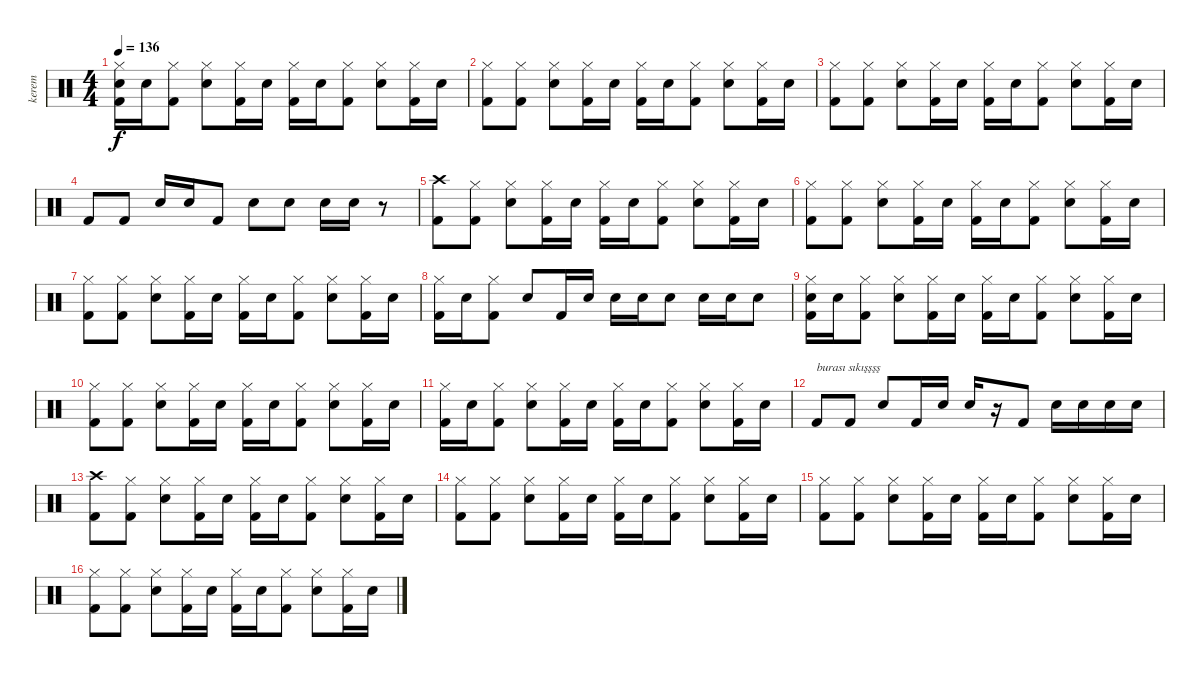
\track ("kerem" "kerem") {instrument percussion}
\staff {score}
\articulation defaults
\ts (4 4)
\tempo 136
\clef neutral
\ks c
("Kick (hit) 2" "Electric Snare (hit)" "Hi-Hat (closed)").16{dy f} "Electric Snare (hit)".16 ("Kick (hit) 2" "Hi-Hat (closed)").8 ("Electric Snare (hit)" "Hi-Hat (closed)").8 ("Kick (hit) 2" "Hi-Hat (closed)").16 "Electric Snare (hit)".16 ("Kick (hit) 2" "Hi-Hat (closed)").16 "Electric Snare (hit)".16 ("Kick (hit) 2" "Hi-Hat (closed)").8 ("Electric Snare (hit)" "Hi-Hat (closed)").8 ("Kick (hit) 2" "Hi-Hat (closed)").16 "Electric Snare (hit)".16 |
("Kick (hit) 2" "Hi-Hat (closed)").8 ("Kick (hit) 2" "Hi-Hat (closed)").8 ("Electric Snare (hit)" "Hi-Hat (closed)").8 ("Kick (hit) 2" "Hi-Hat (closed)").16 "Electric Snare (hit)".16 ("Kick (hit) 2" "Hi-Hat (closed)").16 "Electric Snare (hit)".16 ("Kick (hit) 2" "Hi-Hat (closed)").8 ("Electric Snare (hit)" "Hi-Hat (closed)").8 ("Kick (hit) 2" "Hi-Hat (closed)").16 "Electric Snare (hit)".16 |
("Kick (hit) 2" "Hi-Hat (closed)").8 ("Kick (hit) 2" "Hi-Hat (closed)").8 ("Electric Snare (hit)" "Hi-Hat (closed)").8 ("Kick (hit) 2" "Hi-Hat (closed)").16 "Electric Snare (hit)".16 ("Kick (hit) 2" "Hi-Hat (closed)").16 "Electric Snare (hit)".16 ("Kick (hit) 2" "Hi-Hat (closed)").8 ("Electric Snare (hit)" "Hi-Hat (closed)").8 ("Kick (hit) 2" "Hi-Hat (closed)").16 "Electric Snare (hit)".16 |
"Kick (hit) 2".8 "Kick (hit) 2".8 "Electric Snare (hit)".16 "Electric Snare (hit)".16 "Kick (hit) 2".8 "Electric Snare (hit)".8 "Electric Snare (hit)".8 "Electric Snare (hit)".16 "Electric Snare (hit)".16 r.8 |
("Kick (hit) 2" "Crash high (hit)").8 ("Kick (hit) 2" "Hi-Hat (closed)").8 ("Electric Snare (hit)" "Hi-Hat (closed)").8 ("Kick (hit) 2" "Hi-Hat (closed)").16 "Electric Snare (hit)".16 ("Kick (hit) 2" "Hi-Hat (closed)").16 "Electric Snare (hit)".16 ("Kick (hit) 2" "Hi-Hat (closed)").8 ("Electric Snare (hit)" "Hi-Hat (closed)").8 ("Kick (hit) 2" "Hi-Hat (closed)").16 "Electric Snare (hit)".16 |
("Kick (hit) 2" "Hi-Hat (closed)").8 ("Kick (hit) 2" "Hi-Hat (closed)").8 ("Electric Snare (hit)" "Hi-Hat (closed)").8 ("Kick (hit) 2" "Hi-Hat (closed)").16 "Electric Snare (hit)".16 ("Kick (hit) 2" "Hi-Hat (closed)").16 "Electric Snare (hit)".16 ("Kick (hit) 2" "Hi-Hat (closed)").8 ("Electric Snare (hit)" "Hi-Hat (closed)").8 ("Kick (hit) 2" "Hi-Hat (closed)").16 "Electric Snare (hit)".16 |
("Kick (hit) 2" "Hi-Hat (closed)").8 ("Kick (hit) 2" "Hi-Hat (closed)").8 ("Electric Snare (hit)" "Hi-Hat (closed)").8 ("Kick (hit) 2" "Hi-Hat (closed)").16 "Electric Snare (hit)".16 ("Kick (hit) 2" "Hi-Hat (closed)").16 "Electric Snare (hit)".16 ("Kick (hit) 2" "Hi-Hat (closed)").8 ("Electric Snare (hit)" "Hi-Hat (closed)").8 ("Kick (hit) 2" "Hi-Hat (closed)").16 "Electric Snare (hit)".16 |
("Kick (hit) 2" "Hi-Hat (closed)").16 "Electric Snare (hit)".16 ("Kick (hit) 2" "Hi-Hat (closed)").8 "Electric Snare (hit)".8 "Kick (hit) 2".16 "Electric Snare (hit)".16 "Electric Snare (hit)".16 "Electric Snare (hit)".16 "Electric Snare (hit)".8 "Electric Snare (hit)".16 "Electric Snare (hit)".16 "Electric Snare (hit)".8 |
("Kick (hit) 2" "Electric Snare (hit)" "Hi-Hat (closed)").16 "Electric Snare (hit)".16 ("Kick (hit) 2" "Hi-Hat (closed)").8 ("Electric Snare (hit)" "Hi-Hat (closed)").8 ("Kick (hit) 2" "Hi-Hat (closed)").16 "Electric Snare (hit)".16 ("Kick (hit) 2" "Hi-Hat (closed)").16 "Electric Snare (hit)".16 ("Kick (hit) 2" "Hi-Hat (closed)").8 ("Electric Snare (hit)" "Hi-Hat (closed)").8 ("Kick (hit) 2" "Hi-Hat (closed)").16 "Electric Snare (hit)".16 |
("Kick (hit) 2" "Hi-Hat (closed)").8 ("Kick (hit) 2" "Hi-Hat (closed)").8 ("Electric Snare (hit)" "Hi-Hat (closed)").8 ("Kick (hit) 2" "Hi-Hat (closed)").16 "Electric Snare (hit)".16 ("Kick (hit) 2" "Hi-Hat (closed)").16 "Electric Snare (hit)".16 ("Kick (hit) 2" "Hi-Hat (closed)").8 ("Electric Snare (hit)" "Hi-Hat (closed)").8 ("Kick (hit) 2" "Hi-Hat (closed)").16 "Electric Snare (hit)".16 |
("Kick (hit) 2" "Hi-Hat (closed)").16 "Electric Snare (hit)".16 ("Kick (hit) 2" "Hi-Hat (closed)").8 ("Electric Snare (hit)" "Hi-Hat (closed)").8 ("Kick (hit) 2" "Hi-Hat (closed)").16 "Electric Snare (hit)".16 ("Kick (hit) 2" "Hi-Hat (closed)").16 "Electric Snare (hit)".16 ("Kick (hit) 2" "Hi-Hat (closed)").8 ("Electric Snare (hit)" "Hi-Hat (closed)").8 ("Kick (hit) 2" "Hi-Hat (closed)").16 "Electric Snare (hit)".16 |
"Kick (hit) 2".8{txt "burası sıkışşşş"} "Kick (hit) 2".8 "Electric Snare (hit)".8 "Kick (hit) 2".16 "Electric Snare (hit)".16 "Electric Snare (hit)".16 r.16 "Kick (hit) 2".8 "Electric Snare (hit)".16 "Electric Snare (hit)".16 "Electric Snare (hit)".16 "Electric Snare (hit)".16 |
("Kick (hit) 2" "Crash high (hit)").8 ("Kick (hit) 2" "Hi-Hat (closed)").8 ("Electric Snare (hit)" "Hi-Hat (closed)").8 ("Kick (hit) 2" "Hi-Hat (closed)").16 "Electric Snare (hit)".16 ("Kick (hit) 2" "Hi-Hat (closed)").16 "Electric Snare (hit)".16 ("Kick (hit) 2" "Hi-Hat (closed)").8 ("Electric Snare (hit)" "Hi-Hat (closed)").8 ("Kick (hit) 2" "Hi-Hat (closed)").16 "Electric Snare (hit)".16 |
("Kick (hit) 2" "Hi-Hat (closed)").8 ("Kick (hit) 2" "Hi-Hat (closed)").8 ("Electric Snare (hit)" "Hi-Hat (closed)").8 ("Kick (hit) 2" "Hi-Hat (closed)").16 "Electric Snare (hit)".16 ("Kick (hit) 2" "Hi-Hat (closed)").16 "Electric Snare (hit)".16 ("Kick (hit) 2" "Hi-Hat (closed)").8 ("Electric Snare (hit)" "Hi-Hat (closed)").8 ("Kick (hit) 2" "Hi-Hat (closed)").16 "Electric Snare (hit)".16 |
("Kick (hit) 2" "Hi-Hat (closed)").8 ("Kick (hit) 2" "Hi-Hat (closed)").8 ("Electric Snare (hit)" "Hi-Hat (closed)").8 ("Kick (hit) 2" "Hi-Hat (closed)").16 "Electric Snare (hit)".16 ("Kick (hit) 2" "Hi-Hat (closed)").16 "Electric Snare (hit)".16 ("Kick (hit) 2" "Hi-Hat (closed)").8 ("Electric Snare (hit)" "Hi-Hat (closed)").8 ("Kick (hit) 2" "Hi-Hat (closed)").16 "Electric Snare (hit)".16 |
("Kick (hit) 2" "Hi-Hat (closed)").8 ("Kick (hit) 2" "Hi-Hat (closed)").8 ("Electric Snare (hit)" "Hi-Hat (closed)").8 ("Kick (hit) 2" "Hi-Hat (closed)").16 "Electric Snare (hit)".16 ("Kick (hit) 2" "Hi-Hat (closed)").16 "Electric Snare (hit)".16 ("Kick (hit) 2" "Hi-Hat (closed)").8 ("Electric Snare (hit)" "Hi-Hat (closed)").8 ("Kick (hit) 2" "Hi-Hat (closed)").16 "Electric Snare (hit)".16
